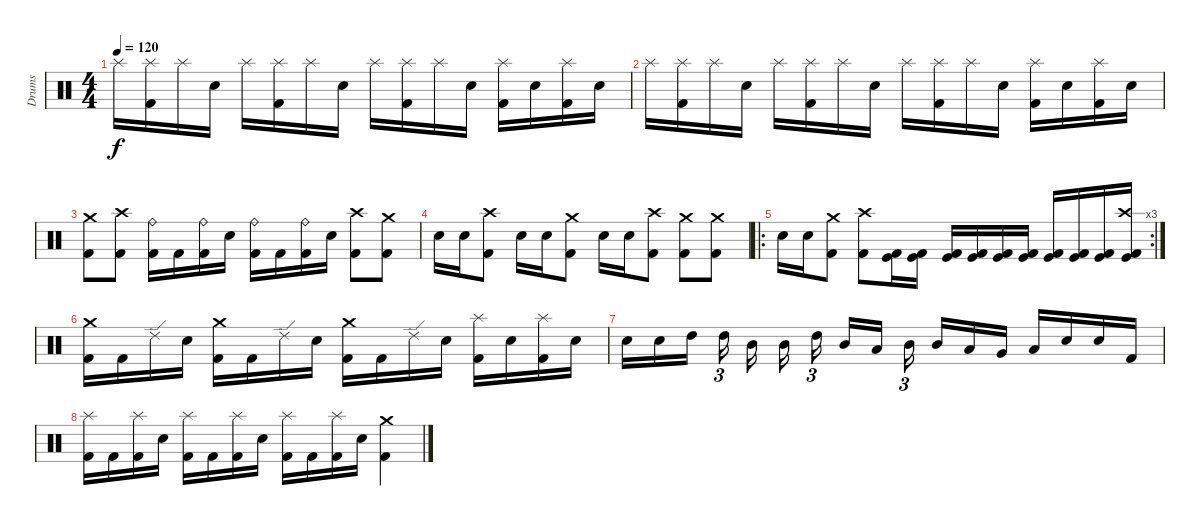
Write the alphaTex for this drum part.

\track ("Drums" "Drums") {instrument percussion}
\staff {score}
\articulation defaults
\ts (4 4)
\tempo 120
\clef neutral
\ks c "Splash (hit)".16{dy f}
("Splash (hit)" "Kick (hit) 2").16 "Splash (hit)".16 "Electric Snare (hit)".16 "Splash (hit)".16 ("Splash (hit)" "Kick (hit) 2").16 "Splash (hit)".16 "Electric Snare (hit)".16 "Splash (hit)".16 ("Splash (hit)" "Kick (hit) 2").16 "Splash (hit)".16 "Electric Snare (hit)".16 ("Splash (hit)" "Kick (hit) 2").16 "Electric Snare (hit)".16 ("Splash (hit)" "Kick (hit) 2").16 "Electric Snare (hit)".16 |
"Splash (hit)".16 ("Splash (hit)" "Kick (hit) 2").16 "Splash (hit)".16 "Electric Snare (hit)".16 "Splash (hit)".16 ("Splash (hit)" "Kick (hit) 2").16 "Splash (hit)".16 "Electric Snare (hit)".16 "Splash (hit)".16 ("Splash (hit)" "Kick (hit) 2").16 "Splash (hit)".16 "Electric Snare (hit)".16 ("Splash (hit)" "Kick (hit) 2").16 "Electric Snare (hit)".16 ("Splash (hit)" "Kick (hit) 2").16 "Electric Snare (hit)".16 |
("Crash medium (hit)" "Kick (hit) 2").8 ("Crash high (hit)" "Kick (hit) 2").8 ("Ride (bell)" "Kick (hit) 2").16 "Kick (hit) 2".16 ("Ride (bell)" "Kick (hit) 2").16 "Electric Snare (hit)".16 ("Ride (bell)" "Kick (hit) 2").16 "Kick (hit) 2".16 ("Ride (bell)" "Kick (hit) 2").16 "Electric Snare (hit)".16 ("Crash high (hit)" "Kick (hit) 2").8 ("Crash medium (hit)" "Kick (hit) 2").8 |
"Electric Snare (hit)".16 "Electric Snare (hit)".16 ("Crash high (hit)" "Kick (hit) 2").8 "Electric Snare (hit)".16 "Electric Snare (hit)".16 ("Crash medium (hit)" "Kick (hit) 2").8 "Electric Snare (hit)".16 "Electric Snare (hit)".16 ("Crash high (hit)" "Kick (hit) 2").8 ("Crash medium (hit)" "Kick (hit) 2").8 ("Crash medium (hit)" "Kick (hit) 2").8 |
\ro
\rc 3 "Electric Snare (hit)".16 "Electric Snare (hit)".16
("Crash medium (hit)" "Kick (hit) 2").8 ("Crash high (hit)" "Kick (hit) 2").8 ("Kick (hit) 2" "Kick (hit)").16 ("Kick (hit) 2" "Kick (hit)").16 ("Kick (hit) 2" "Kick (hit)").16 ("Kick (hit) 2" "Kick (hit)").16 ("Kick (hit) 2" "Kick (hit)").16 ("Kick (hit) 2" "Kick (hit)").16 ("Kick (hit) 2" "Kick (hit)").16 ("Kick (hit) 2" "Kick (hit)").16 ("Kick (hit) 2" "Kick (hit)").16 ("Crash high (hit)" "Kick (hit) 2" "Kick (hit)").16 |
("Crash medium (hit)" "Kick (hit) 2").16 "Kick (hit) 2".16 "Ride (edge) 2".16 "Electric Snare (hit)".16 ("Crash medium (hit)" "Kick (hit) 2").16 "Kick (hit) 2".16 "Ride (edge) 2".16 "Electric Snare (hit)".16 ("Crash medium (hit)" "Kick (hit) 2").16 "Kick (hit) 2".16 "Ride (edge) 2".16 "Electric Snare (hit)".16 ("Splash (hit)" "Kick (hit) 2").16 "Electric Snare (hit)".16 ("Splash (hit)" "Kick (hit) 2").16 "Electric Snare (hit)".16 |
"Electric Snare (hit)".16 "Electric Snare (hit)".16 "High Tom (hit)".16 "High Tom (hit)".16{tu (3 2)} "Mid Tom (hit)".16 "Mid Tom (hit)".16 "High Tom (hit)".16{tu (3 2)} "Mid Tom (hit)".16 "Low Tom (hit)".16 "Mid Tom (hit)".16{tu (3 2)} "Mid Tom (hit)".16 "Low Tom (hit)".16 "Very Low Tom (hit)".16 "Low Floor Tom (hit)".16 "Electric Snare (hit)".16 "Electric Snare (hit)".16 "Kick (hit) 2".16 |
("Splash (hit)" "Kick (hit) 2").16 "Kick (hit) 2".16 ("Splash (hit)" "Kick (hit) 2").16 "Electric Snare (hit)".16 ("Splash (hit)" "Kick (hit) 2").16 "Kick (hit) 2".16 ("Splash (hit)" "Kick (hit) 2").16 "Electric Snare (hit)".16 ("Splash (hit)" "Kick (hit) 2").16 "Kick (hit) 2".16 ("Splash (hit)" "Kick (hit) 2").16 "Electric Snare (hit)".16 ("Crash medium (hit)" "Kick (hit) 2").4
